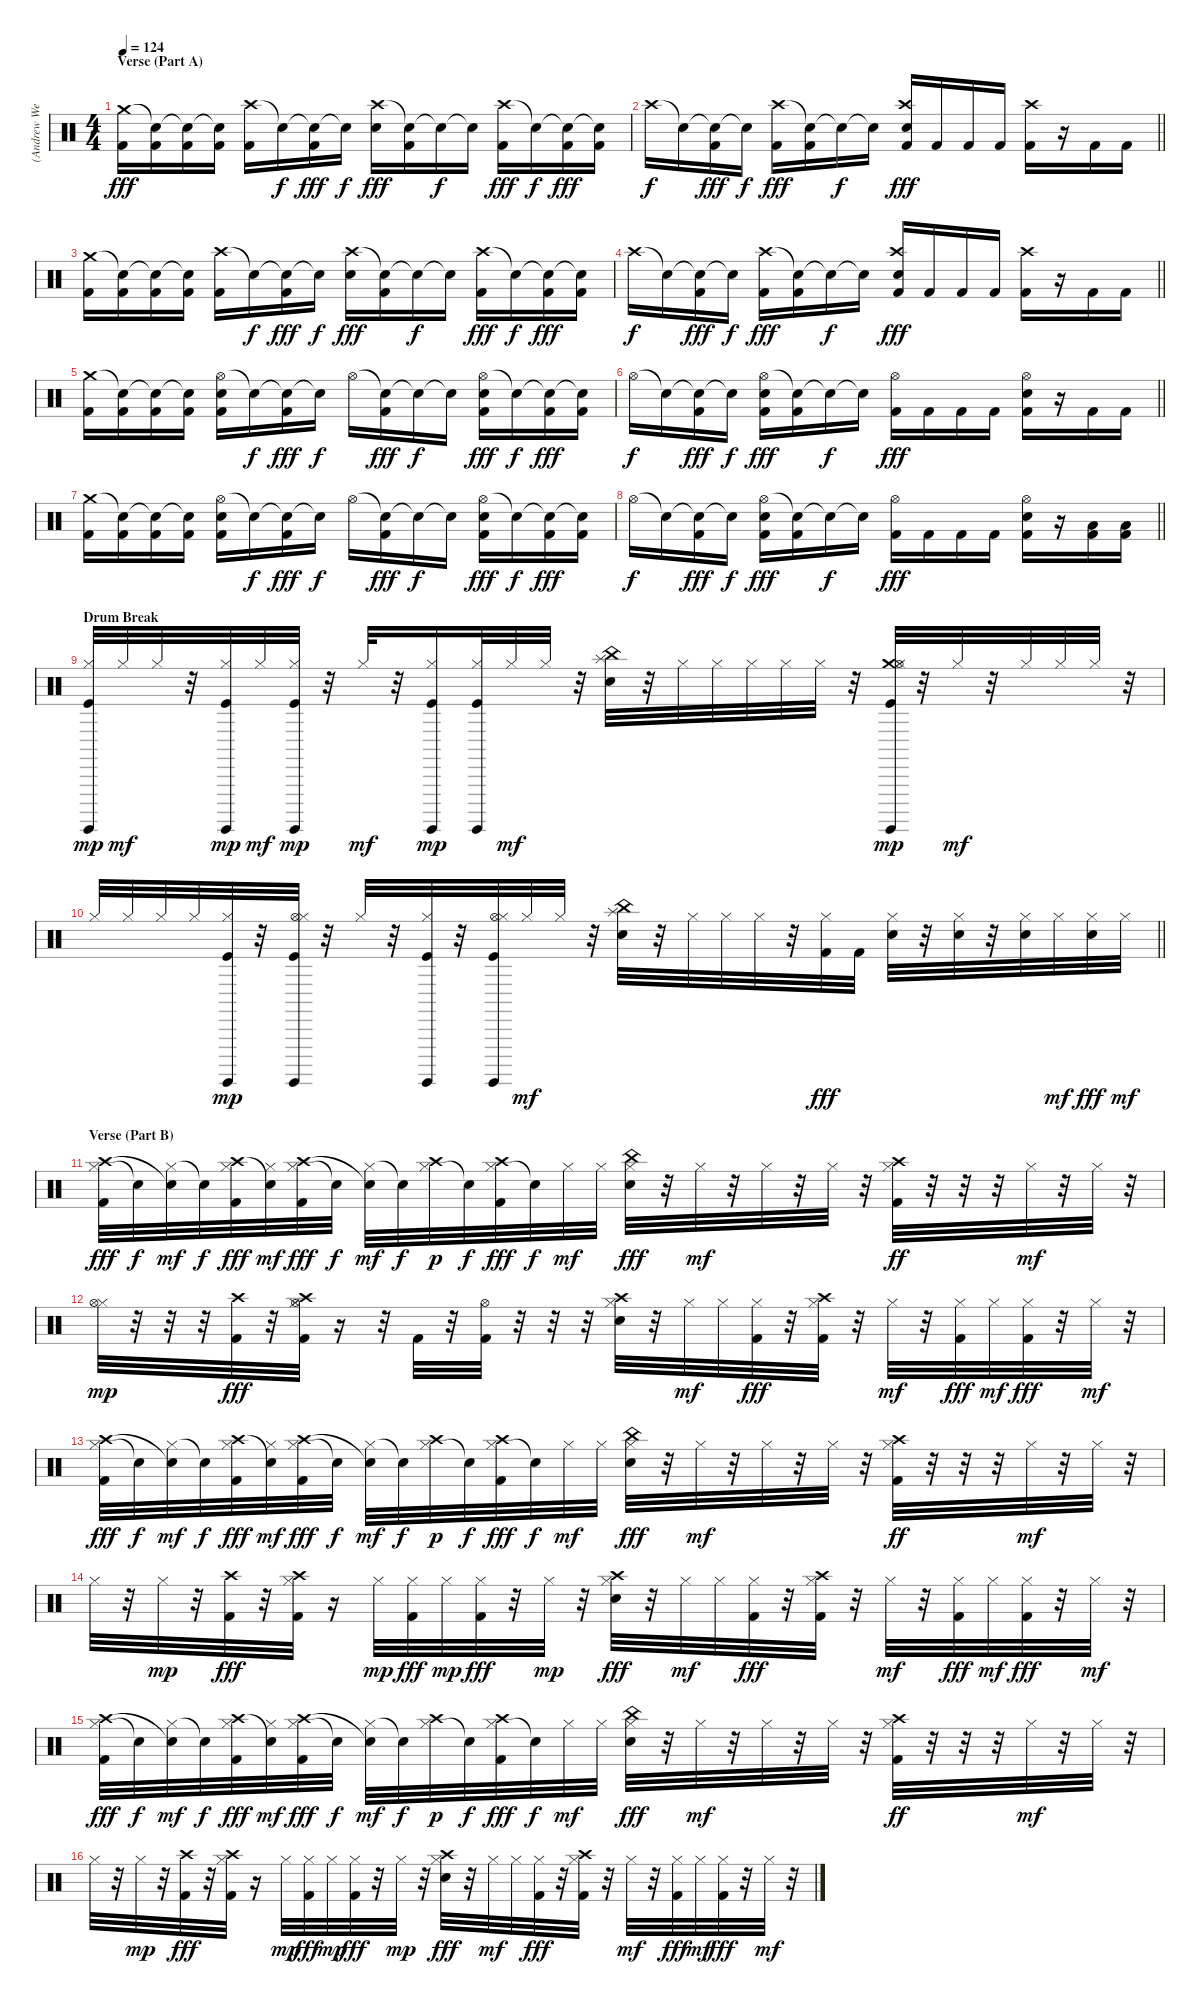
\track ("(Andrew Wetzel) Drums" "(Andrew We") {instrument percussion}
\staff {score}
\articulation defaults
\ts (4 4)
\section ("" "Verse (Part A)")
\tempo 124
\clef neutral
\ks c
("Crash medium (hit)" "Kick (hit) 2").16{dy fff} ("Snare (hit)"{t} "Kick (hit) 2").16 ("Snare (hit)"{t} "Kick (hit) 2").16 ("Snare (hit)"{t} "Kick (hit) 2").16 ("Crash high (hit)" "Kick (hit) 2").16 "Snare (hit)"{t}.16{dy f} ("Snare (hit)"{t} "Kick (hit) 2").16{dy fff} "Snare (hit)"{t}.16{dy f} ("Crash high (hit)" "Electric Snare (hit)").16{dy fff} ("Snare (hit)"{t} "Kick (hit) 2").16 "Snare (hit)"{t}.16{dy f} "Snare (hit)"{t}.16 ("Crash high (hit)" "Kick (hit) 2").16{dy fff} "Snare (hit)"{t}.16{dy f} ("Snare (hit)"{t} "Kick (hit) 2").16{dy fff} ("Snare (hit)"{t} "Kick (hit) 2").16 |
\barLineRight lightlight "Crash high (hit)".16{dy f} "Snare (hit)"{t}.16
("Snare (hit)"{t} "Kick (hit) 2").16{dy fff} "Snare (hit)"{t}.16{dy f} ("Crash high (hit)" "Kick (hit) 2").16{dy fff} ("Snare (hit)"{t} "Kick (hit) 2").16 "Snare (hit)"{t}.16{dy f} "Snare (hit)"{t}.16 ("Crash high (hit)" "Electric Snare (hit)" "Kick (hit) 2").16{dy fff} "Kick (hit) 2".16 "Kick (hit) 2".16 "Kick (hit) 2".16 ("Crash high (hit)" "Kick (hit) 2").16 r.16 "Kick (hit) 2".16 "Kick (hit) 2".16 |
("Crash medium (hit)" "Kick (hit) 2").16 ("Snare (hit)"{t} "Kick (hit) 2").16 ("Snare (hit)"{t} "Kick (hit) 2").16 ("Snare (hit)"{t} "Kick (hit) 2").16 ("Crash high (hit)" "Kick (hit) 2").16 "Snare (hit)"{t}.16{dy f} ("Snare (hit)"{t} "Kick (hit) 2").16{dy fff} "Snare (hit)"{t}.16{dy f} ("Crash high (hit)" "Electric Snare (hit)").16{dy fff} ("Snare (hit)"{t} "Kick (hit) 2").16 "Snare (hit)"{t}.16{dy f} "Snare (hit)"{t}.16 ("Crash high (hit)" "Kick (hit) 2").16{dy fff} "Snare (hit)"{t}.16{dy f} ("Snare (hit)"{t} "Kick (hit) 2").16{dy fff} ("Snare (hit)"{t} "Kick (hit) 2").16 |
\barLineRight lightlight "Crash high (hit)".16{dy f} "Snare (hit)"{t}.16
("Snare (hit)"{t} "Kick (hit) 2").16{dy fff} "Snare (hit)"{t}.16{dy f} ("Crash high (hit)" "Kick (hit) 2").16{dy fff} ("Snare (hit)"{t} "Kick (hit) 2").16 "Snare (hit)"{t}.16{dy f} "Snare (hit)"{t}.16 ("Crash high (hit)" "Electric Snare (hit)" "Kick (hit) 2").16{dy fff} "Kick (hit) 2".16 "Kick (hit) 2".16 "Kick (hit) 2".16 ("Crash high (hit)" "Kick (hit) 2").16 r.16 "Kick (hit) 2".16 "Kick (hit) 2".16 |
("Crash medium (hit)" "Kick (hit) 2").16 ("Snare (hit)"{t} "Kick (hit) 2").16 ("Snare (hit)"{t} "Kick (hit) 2").16 ("Snare (hit)"{t} "Kick (hit) 2").16 ("Hi-Hat (open)" "Electric Snare (hit)" "Kick (hit) 2").16 "Snare (hit)"{t}.16{dy f} ("Snare (hit)"{t} "Kick (hit) 2").16{dy fff} "Snare (hit)"{t}.16{dy f} "Hi-Hat (open)".16 ("Snare (hit)"{t} "Kick (hit) 2").16{dy fff} "Snare (hit)"{t}.16{dy f} "Snare (hit)"{t}.16 ("Hi-Hat (open)" "Electric Snare (hit)" "Kick (hit) 2").16{dy fff} "Snare (hit)"{t}.16{dy f} ("Snare (hit)"{t} "Kick (hit) 2").16{dy fff} ("Snare (hit)"{t} "Kick (hit) 2").16 |
\barLineRight lightlight "Hi-Hat (open)".16{dy f} "Snare (hit)"{t}.16
("Snare (hit)"{t} "Kick (hit) 2").16{dy fff} "Snare (hit)"{t}.16{dy f} ("Hi-Hat (open)" "Electric Snare (hit)" "Kick (hit) 2").16{dy fff} ("Snare (hit)"{t} "Kick (hit) 2").16 "Snare (hit)"{t}.16{dy f} "Snare (hit)"{t}.16 ("Hi-Hat (open)" "Kick (hit) 2").16{dy fff} "Kick (hit) 2".16 "Kick (hit) 2".16 "Kick (hit) 2".16 ("Hi-Hat (open)" "Electric Snare (hit)" "Kick (hit) 2").16 r.16 "Kick (hit) 2".16 "Kick (hit) 2".16 |
("Crash medium (hit)" "Kick (hit) 2").16 ("Snare (hit)"{t} "Kick (hit) 2").16 ("Snare (hit)"{t} "Kick (hit) 2").16 ("Snare (hit)"{t} "Kick (hit) 2").16 ("Hi-Hat (open)" "Electric Snare (hit)" "Kick (hit) 2").16 "Snare (hit)"{t}.16{dy f} ("Snare (hit)"{t} "Kick (hit) 2").16{dy fff} "Snare (hit)"{t}.16{dy f} "Hi-Hat (open)".16 ("Snare (hit)"{t} "Kick (hit) 2").16{dy fff} "Snare (hit)"{t}.16{dy f} "Snare (hit)"{t}.16 ("Hi-Hat (open)" "Electric Snare (hit)" "Kick (hit) 2").16{dy fff} "Snare (hit)"{t}.16{dy f} ("Snare (hit)"{t} "Kick (hit) 2").16{dy fff} ("Snare (hit)"{t} "Kick (hit) 2").16 |
\barLineRight lightlight "Hi-Hat (open)".16{dy f} "Snare (hit)"{t}.16
("Snare (hit)"{t} "Kick (hit) 2").16{dy fff} "Snare (hit)"{t}.16{dy f} ("Hi-Hat (open)" "Electric Snare (hit)" "Kick (hit) 2").16{dy fff} ("Snare (hit)"{t} "Kick (hit) 2").16 "Snare (hit)"{t}.16{dy f} "Snare (hit)"{t}.16 ("Hi-Hat (open)" "Kick (hit) 2").16{dy fff} "Kick (hit) 2".16 "Kick (hit) 2".16 "Kick (hit) 2".16 ("Hi-Hat (open)" "Electric Snare (hit)" "Kick (hit) 2").16 r.16 ("Low Tom (hit)" "Kick (hit) 2").16 ("Low Floor Tom (hit)" "Kick (hit) 2").16 |
\section ("" "Drum Break")
("Hi-Hat (closed)" "Kick (hit)" "Surdo (hit)").32{dy mp volume 12} "Hi-Hat (closed)".32{dy mf} "Hi-Hat (closed)".32 r.32 ("Hi-Hat (closed)" "Kick (hit)" "Surdo (hit)").32{dy mp} "Hi-Hat (closed)".32{dy mf} ("Hi-Hat (closed)" "Kick (hit)" "Surdo (hit)").32{dy mp} r.32 "Hi-Hat (closed)".32{dy mf} r.32 ("Hi-Hat (closed)" "Kick (hit)" "Surdo (hit)").16{dy mp} ("Hi-Hat (closed)" "Kick (hit)" "Surdo (hit)").32 "Hi-Hat (closed)".32{dy mf} "Hi-Hat (closed)".32 r.32 ("China (hit)" "Splash (hit)" "Electric Snare (hit)").32 r.32 "Hi-Hat (closed)".32 "Hi-Hat (closed)".32 "Hi-Hat (closed)".32 "Hi-Hat (closed)".32 "Hi-Hat (closed)".32 r.32 ("Crash medium (hit)" "Hi-Hat (open)" "Hi-Hat (closed)" "Kick (hit)" "Surdo (hit)").32{dy mp} r.32 "Hi-Hat (closed)".32{dy mf} r.32 "Hi-Hat (closed)".32 "Hi-Hat (closed)".32 "Hi-Hat (closed)".32 r.32 |
\barLineRight lightlight "Hi-Hat (closed)".32 "Hi-Hat (closed)".32 "Hi-Hat (closed)".32 "Hi-Hat (closed)".32
("Hi-Hat (closed)" "Kick (hit)" "Surdo (hit)").32{dy mp} r.32 ("Hi-Hat (open)" "Hi-Hat (closed)" "Kick (hit)" "Surdo (hit)").32 r.32 "Hi-Hat (closed)".32 r.32 ("Hi-Hat (closed)" "Kick (hit)" "Surdo (hit)").32 r.32 ("Hi-Hat (open)" "Hi-Hat (closed)" "Kick (hit)" "Surdo (hit)").32 "Hi-Hat (closed)".32{dy mf} "Hi-Hat (closed)".32 r.32 ("China (hit)" "Splash (hit)" "Electric Snare (hit)").32 r.32 "Hi-Hat (closed)".32 "Hi-Hat (closed)".32 "Hi-Hat (closed)".32 r.32 ("Hi-Hat (closed)" "Kick (hit) 2").32{dy fff} "Kick (hit) 2".32 ("Hi-Hat (closed)" "Electric Snare (hit)").32 r.32 ("Hi-Hat (closed)" "Electric Snare (hit)").32 r.32 ("Hi-Hat (closed)" "Electric Snare (hit)").32 "Hi-Hat (closed)".32{dy mf} ("Hi-Hat (closed)" "Electric Snare (hit)").32{dy fff} "Hi-Hat (closed)".32{dy mf} |
\section ("" "Verse (Part B)")
("Hi-Hat (closed)" "Crash high (hit)" "Kick (hit) 2").32{dy fff volume 14} "Snare (hit)"{t}.32{dy f} ("Hi-Hat (closed)" "Snare (hit)"{t}).32{dy mf} "Snare (hit)"{t}.32{dy f} ("Hi-Hat (closed)" "Crash high (hit)" "Kick (hit) 2").32{dy fff} ("Hi-Hat (closed)" "Snare (hit)"{t}).32{dy mf} ("Hi-Hat (closed)" "Crash high (hit)" "Kick (hit) 2").32{dy fff} "Snare (hit)"{t}.32{dy f} ("Hi-Hat (closed)" "Snare (hit)"{t}).32{dy mf} "Snare (hit)"{t}.32{dy f} ("Hi-Hat (closed)" "Crash high (hit)").32{dy p} "Snare (hit)"{t}.32{dy f} ("Hi-Hat (closed)" "Crash high (hit)" "Kick (hit) 2").32{dy fff} "Snare (hit)"{t}.32{dy f} "Hi-Hat (closed)".32{dy mf} "Hi-Hat (closed)".32 ("Hi-Hat (closed)" "China (hit)" "Electric Snare (hit)").32{dy fff} r.32 "Hi-Hat (closed)".32{dy mf} r.32 "Hi-Hat (closed)".32 r.32 "Hi-Hat (closed)".32 r.32 ("Hi-Hat (closed)" "Crash high (hit)" "Kick (hit) 2").32{dy ff} r.32 r.32 r.32 "Hi-Hat (closed)".32{dy mf} r.32 "Hi-Hat (closed)".32 r.32 |
("Hi-Hat (closed)" "Hi-Hat (open)").32{dy mp} r.32 r.32 r.32 ("Crash high (hit)" "Kick (hit) 2").32{dy fff} r.32 ("Hi-Hat (closed)" "Crash high (hit)" "Hi-Hat (open)" "Kick (hit) 2").32 r.16 r.32 "Kick (hit) 2".32 r.32 ("Hi-Hat (open)" "Kick (hit) 2").32 r.32 r.32 r.32 ("Hi-Hat (closed)" "Crash high (hit)" "Electric Snare (hit)").32 r.32 "Hi-Hat (closed)".32{dy mf} "Hi-Hat (closed)".32 ("Hi-Hat (closed)" "Kick (hit) 2").32{dy fff} r.32 ("Hi-Hat (closed)" "Crash high (hit)" "Kick (hit) 2").32 r.32 "Hi-Hat (closed)".32{dy mf} r.32 ("Hi-Hat (closed)" "Kick (hit) 2").32{dy fff} "Hi-Hat (closed)".32{dy mf} ("Hi-Hat (closed)" "Kick (hit) 2").32{dy fff} r.32 "Hi-Hat (closed)".32{dy mf} r.32 |
("Hi-Hat (closed)" "Crash high (hit)" "Kick (hit) 2").32{dy fff} "Snare (hit)"{t}.32{dy f} ("Hi-Hat (closed)" "Snare (hit)"{t}).32{dy mf} "Snare (hit)"{t}.32{dy f} ("Hi-Hat (closed)" "Crash high (hit)" "Kick (hit) 2").32{dy fff} ("Hi-Hat (closed)" "Snare (hit)"{t}).32{dy mf} ("Hi-Hat (closed)" "Crash high (hit)" "Kick (hit) 2").32{dy fff} "Snare (hit)"{t}.32{dy f} ("Hi-Hat (closed)" "Snare (hit)"{t}).32{dy mf} "Snare (hit)"{t}.32{dy f} ("Hi-Hat (closed)" "Crash high (hit)").32{dy p} "Snare (hit)"{t}.32{dy f} ("Hi-Hat (closed)" "Crash high (hit)" "Kick (hit) 2").32{dy fff} "Snare (hit)"{t}.32{dy f} "Hi-Hat (closed)".32{dy mf} "Hi-Hat (closed)".32 ("Hi-Hat (closed)" "China (hit)" "Electric Snare (hit)").32{dy fff} r.32 "Hi-Hat (closed)".32{dy mf} r.32 "Hi-Hat (closed)".32 r.32 "Hi-Hat (closed)".32 r.32 ("Hi-Hat (closed)" "Crash high (hit)" "Kick (hit) 2").32{dy ff} r.32 r.32 r.32 "Hi-Hat (closed)".32{dy mf} r.32 "Hi-Hat (closed)".32 r.32 |
"Hi-Hat (closed)".32 r.32 "Hi-Hat (closed)".32{dy mp} r.32 ("Crash high (hit)" "Kick (hit) 2").32{dy fff} r.32 ("Hi-Hat (closed)" "Crash high (hit)" "Kick (hit) 2").32 r.16 "Hi-Hat (closed)".32{dy mp} ("Hi-Hat (closed)" "Kick (hit) 2").32{dy fff} "Hi-Hat (closed)".32{dy mp} ("Hi-Hat (closed)" "Kick (hit) 2").32{dy fff} r.32 "Hi-Hat (closed)".32{dy mp} r.32 ("Hi-Hat (closed)" "Crash high (hit)" "Electric Snare (hit)").32{dy fff} r.32 "Hi-Hat (closed)".32{dy mf} "Hi-Hat (closed)".32 ("Hi-Hat (closed)" "Kick (hit) 2").32{dy fff} r.32 ("Hi-Hat (closed)" "Crash high (hit)" "Kick (hit) 2").32 r.32 "Hi-Hat (closed)".32{dy mf} r.32 ("Hi-Hat (closed)" "Kick (hit) 2").32{dy fff} "Hi-Hat (closed)".32{dy mf} ("Hi-Hat (closed)" "Kick (hit) 2").32{dy fff} r.32 "Hi-Hat (closed)".32{dy mf} r.32 |
("Hi-Hat (closed)" "Crash high (hit)" "Kick (hit) 2").32{dy fff} "Snare (hit)"{t}.32{dy f} ("Hi-Hat (closed)" "Snare (hit)"{t}).32{dy mf} "Snare (hit)"{t}.32{dy f} ("Hi-Hat (closed)" "Crash high (hit)" "Kick (hit) 2").32{dy fff} ("Hi-Hat (closed)" "Snare (hit)"{t}).32{dy mf} ("Hi-Hat (closed)" "Crash high (hit)" "Kick (hit) 2").32{dy fff} "Snare (hit)"{t}.32{dy f} ("Hi-Hat (closed)" "Snare (hit)"{t}).32{dy mf} "Snare (hit)"{t}.32{dy f} ("Hi-Hat (closed)" "Crash high (hit)").32{dy p} "Snare (hit)"{t}.32{dy f} ("Hi-Hat (closed)" "Crash high (hit)" "Kick (hit) 2").32{dy fff} "Snare (hit)"{t}.32{dy f} "Hi-Hat (closed)".32{dy mf} "Hi-Hat (closed)".32 ("Hi-Hat (closed)" "China (hit)" "Electric Snare (hit)").32{dy fff} r.32 "Hi-Hat (closed)".32{dy mf} r.32 "Hi-Hat (closed)".32 r.32 "Hi-Hat (closed)".32 r.32 ("Hi-Hat (closed)" "Crash high (hit)" "Kick (hit) 2").32{dy ff} r.32 r.32 r.32 "Hi-Hat (closed)".32{dy mf} r.32 "Hi-Hat (closed)".32 r.32 |
"Hi-Hat (closed)".32 r.32 "Hi-Hat (closed)".32{dy mp} r.32 ("Crash high (hit)" "Kick (hit) 2").32{dy fff} r.32 ("Hi-Hat (closed)" "Crash high (hit)" "Kick (hit) 2").32 r.16 "Hi-Hat (closed)".32{dy mp} ("Hi-Hat (closed)" "Kick (hit) 2").32{dy fff} "Hi-Hat (closed)".32{dy mp} ("Hi-Hat (closed)" "Kick (hit) 2").32{dy fff} r.32 "Hi-Hat (closed)".32{dy mp} r.32 ("Hi-Hat (closed)" "Crash high (hit)" "Electric Snare (hit)").32{dy fff} r.32 "Hi-Hat (closed)".32{dy mf} "Hi-Hat (closed)".32 ("Hi-Hat (closed)" "Kick (hit) 2").32{dy fff} r.32 ("Hi-Hat (closed)" "Crash high (hit)" "Kick (hit) 2").32 r.32 "Hi-Hat (closed)".32{dy mf} r.32 ("Hi-Hat (closed)" "Kick (hit) 2").32{dy fff} "Hi-Hat (closed)".32{dy mf} ("Hi-Hat (closed)" "Kick (hit) 2").32{dy fff} r.32 "Hi-Hat (closed)".32{dy mf} r.32
